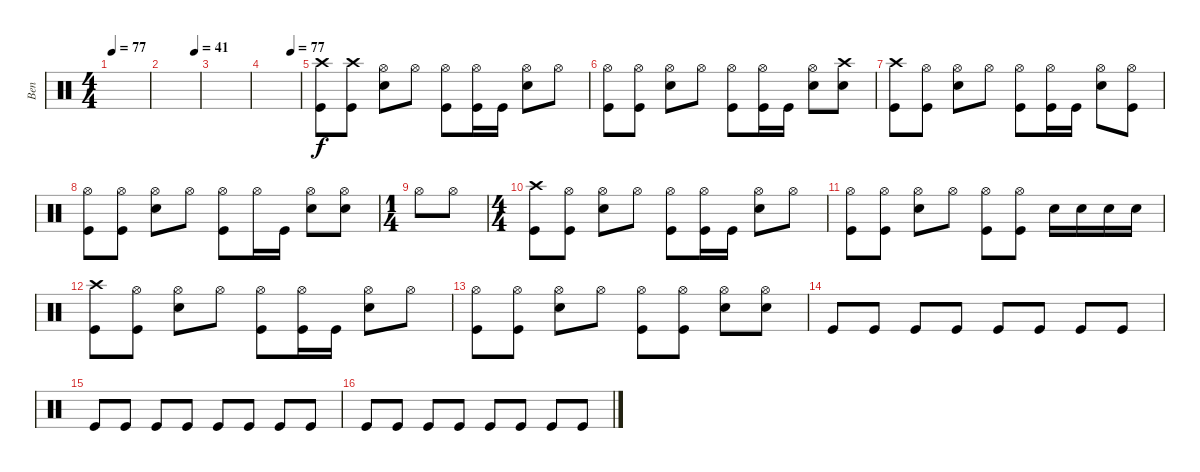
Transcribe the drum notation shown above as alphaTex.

\track ("Ben" "Ben") {instrument percussion}
\staff {score}
\articulation defaults
\ts (4 4)
\tempo 77
\clef neutral
\ks c
|
\tempo (41 0.875)
|
|
\tempo (77 0.75)
|
("Crash high (hit)" "Kick (hit)").8 ("Crash high (hit)" "Kick (hit)").8 ("Hi-Hat (open)" "Snare (hit) 2").8 "Hi-Hat (open)".8 ("Hi-Hat (open)" "Kick (hit)").8 ("Hi-Hat (open)" "Kick (hit)").16 "Kick (hit)".16 ("Hi-Hat (open)" "Snare (hit) 2").8 "Hi-Hat (open)".8 |
("Hi-Hat (open)" "Kick (hit)").8 ("Hi-Hat (open)" "Kick (hit)").8 ("Hi-Hat (open)" "Snare (hit) 2").8 "Hi-Hat (open)".8 ("Hi-Hat (open)" "Kick (hit)").8 ("Hi-Hat (open)" "Kick (hit)").16 "Kick (hit)".16 ("Hi-Hat (open)" "Snare (hit) 2").8 ("Crash high (hit)" "Snare (hit) 2").8 |
("Crash high (hit)" "Kick (hit)").8 ("Hi-Hat (open)" "Kick (hit)").8 ("Hi-Hat (open)" "Snare (hit) 2").8 "Hi-Hat (open)".8 ("Hi-Hat (open)" "Kick (hit)").8 ("Hi-Hat (open)" "Kick (hit)").16 "Kick (hit)".16 ("Hi-Hat (open)" "Snare (hit) 2").8 ("Hi-Hat (open)" "Kick (hit)").8 |
("Hi-Hat (open)" "Kick (hit)").8 ("Hi-Hat (open)" "Kick (hit)").8 ("Hi-Hat (open)" "Snare (hit) 2").8 "Hi-Hat (open)".8 ("Hi-Hat (open)" "Kick (hit)").8 "Hi-Hat (open)".16 "Kick (hit)".16 ("Hi-Hat (open)" "Snare (hit) 2").8 ("Hi-Hat (open)" "Snare (hit) 2").8 |
\ts (1 4)
"Hi-Hat (open)".8 "Hi-Hat (open)".8 |
\ts (4 4)
("Crash high (hit)" "Kick (hit)").8 ("Hi-Hat (open)" "Kick (hit)").8 ("Hi-Hat (open)" "Snare (hit) 2").8 "Hi-Hat (open)".8 ("Hi-Hat (open)" "Kick (hit)").8 ("Hi-Hat (open)" "Kick (hit)").16 "Kick (hit)".16 ("Hi-Hat (open)" "Snare (hit) 2").8 "Hi-Hat (open)".8 |
("Hi-Hat (open)" "Kick (hit)").8 ("Hi-Hat (open)" "Kick (hit)").8 ("Hi-Hat (open)" "Snare (hit) 2").8 "Hi-Hat (open)".8 ("Hi-Hat (open)" "Kick (hit)").8 ("Hi-Hat (open)" "Kick (hit)").8 "Snare (hit) 2".16 "Snare (hit) 2".16 "Snare (hit) 2".16 "Snare (hit) 2".16 |
("Crash high (hit)" "Kick (hit)").8 ("Hi-Hat (open)" "Kick (hit)").8 ("Hi-Hat (open)" "Snare (hit) 2").8 "Hi-Hat (open)".8 ("Hi-Hat (open)" "Kick (hit)").8 ("Hi-Hat (open)" "Kick (hit)").16 "Kick (hit)".16 ("Hi-Hat (open)" "Snare (hit) 2").8 "Hi-Hat (open)".8 |
("Hi-Hat (open)" "Kick (hit)").8 ("Hi-Hat (open)" "Kick (hit)").8 ("Hi-Hat (open)" "Snare (hit) 2").8 "Hi-Hat (open)".8 ("Hi-Hat (open)" "Kick (hit)").8 ("Hi-Hat (open)" "Kick (hit)").8 ("Hi-Hat (open)" "Snare (hit) 2").8 ("Hi-Hat (open)" "Snare (hit) 2").8 |
"Kick (hit)".8 "Kick (hit)".8 "Kick (hit)".8 "Kick (hit)".8 "Kick (hit)".8 "Kick (hit)".8 "Kick (hit)".8 "Kick (hit)".8 |
"Kick (hit)".8 "Kick (hit)".8 "Kick (hit)".8 "Kick (hit)".8 "Kick (hit)".8 "Kick (hit)".8 "Kick (hit)".8 "Kick (hit)".8 |
"Kick (hit)".8 "Kick (hit)".8 "Kick (hit)".8 "Kick (hit)".8 "Kick (hit)".8 "Kick (hit)".8 "Kick (hit)".8 "Kick (hit)".8
